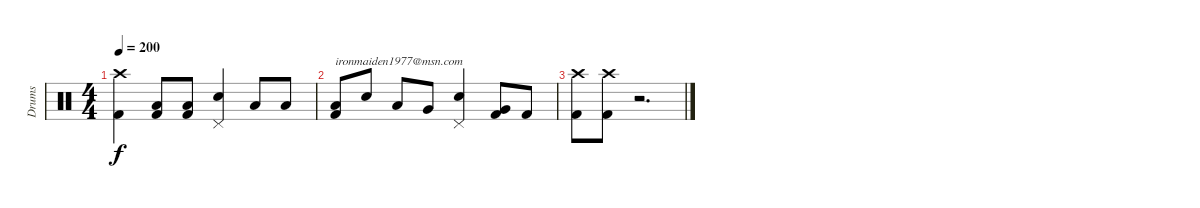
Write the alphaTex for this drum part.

\track ("Drums" "Drums") {instrument percussion}
\staff {score}
\articulation defaults
\ts (4 4)
\tempo 200
\clef neutral
\ks c
("Crash high (hit)" "Kick (hit) 2").4{dy f} ("Low Floor Tom (hit)" "Kick (hit) 2").8 ("Low Floor Tom (hit)" "Kick (hit) 2").8 ("Pedal Hi-Hat (hit)" "Electric Snare (hit)").4 "Low Tom (hit)".8 "Low Floor Tom (hit)".8 |
("Low Floor Tom (hit)" "Kick (hit) 2").8{txt "ironmaiden1977@msn.com"} "Electric Snare (hit)".8 "Low Tom (hit)".8 "Very Low Tom (hit)".8 ("Pedal Hi-Hat (hit)" "Electric Snare (hit)").4 ("Very Low Tom (hit)" "Kick (hit) 2").8 "Kick (hit) 2".8 |
("Crash high (hit)" "Kick (hit) 2").8 ("Crash high (hit)" "Kick (hit) 2").8 r.2{d}
